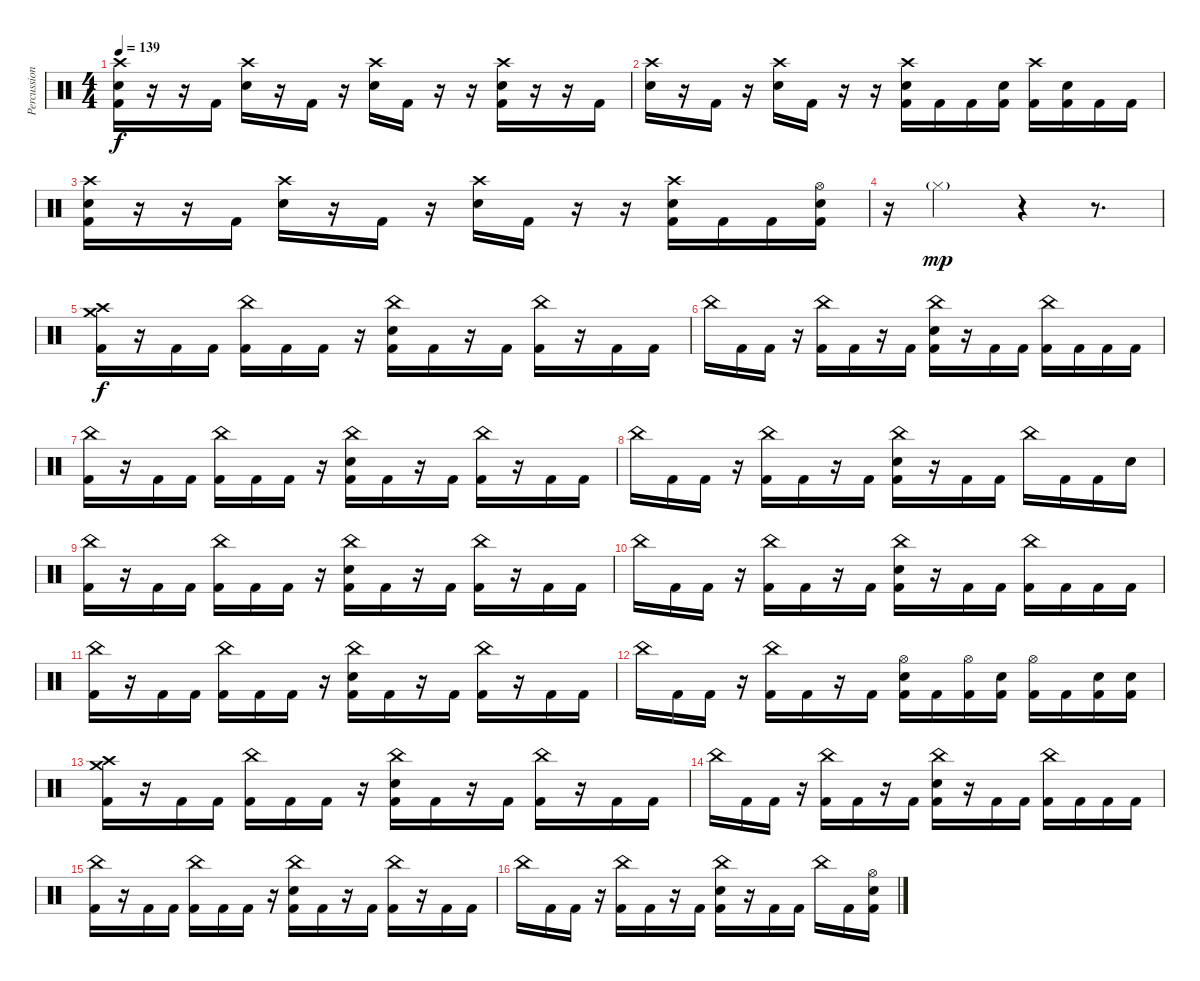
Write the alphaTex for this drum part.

\track ("Percussion" "Percussion") {instrument percussion}
\staff {score}
\articulation defaults
\ts (4 4)
\tempo 139
\clef neutral
\ks c
("Kick (hit) 2" "Electric Snare (hit)" "Crash high (hit)").16{dy f} r.16 r.16 "Kick (hit) 2".16 ("Electric Snare (hit)" "Crash high (hit)").16 r.16 "Kick (hit) 2".16 r.16 ("Electric Snare (hit)" "Crash high (hit)").16 "Kick (hit) 2".16 r.16 r.16 ("Kick (hit) 2" "Electric Snare (hit)" "Crash high (hit)").16 r.16 r.16 "Kick (hit) 2".16 |
("Electric Snare (hit)" "Crash high (hit)").16 r.16 "Kick (hit) 2".16 r.16 ("Electric Snare (hit)" "Crash high (hit)").16 "Kick (hit) 2".16 r.16 r.16 ("Kick (hit) 2" "Electric Snare (hit)" "Crash high (hit)").16 "Kick (hit) 2".16 "Kick (hit) 2".16 ("Kick (hit) 2" "Electric Snare (hit)").16 ("Kick (hit) 2" "Crash high (hit)").16 ("Kick (hit) 2" "Electric Snare (hit)").16 "Kick (hit) 2".16 "Kick (hit) 2".16 |
("Kick (hit) 2" "Electric Snare (hit)" "Crash high (hit)").16 r.16 r.16 "Kick (hit) 2".16 ("Electric Snare (hit)" "Crash high (hit)").16 r.16 "Kick (hit) 2".16 r.16 ("Electric Snare (hit)" "Crash high (hit)").16 "Kick (hit) 2".16 r.16 r.16 ("Kick (hit) 2" "Electric Snare (hit)" "Crash high (hit)").16 "Kick (hit) 2".16 "Kick (hit) 2".16 ("Kick (hit) 2" "Electric Snare (hit)" "Hi-Hat (open)").16 |
r.16 "Hi-Hat (closed)"{g}.2{dy mp} r.4 r.8{d} |
("Kick (hit) 2" "Crash medium (hit)" "Crash high (hit)").16{dy f} r.16 "Kick (hit) 2".16 "Kick (hit) 2".16 ("Kick (hit) 2" "China (hit)").16 "Kick (hit) 2".16 "Kick (hit) 2".16 r.16 ("Kick (hit) 2" "Electric Snare (hit)" "China (hit)").16 "Kick (hit) 2".16 r.16 "Kick (hit) 2".16 ("Kick (hit) 2" "China (hit)").16 r.16 "Kick (hit) 2".16 "Kick (hit) 2".16 |
"China (hit)".16 "Kick (hit) 2".16 "Kick (hit) 2".16 r.16 ("Kick (hit) 2" "China (hit)").16 "Kick (hit) 2".16 r.16 "Kick (hit) 2".16 ("Kick (hit) 2" "Electric Snare (hit)" "China (hit)").16 r.16 "Kick (hit) 2".16 "Kick (hit) 2".16 ("Kick (hit) 2" "China (hit)").16 "Kick (hit) 2".16 "Kick (hit) 2".16 "Kick (hit) 2".16 |
("Kick (hit) 2" "China (hit)").16 r.16 "Kick (hit) 2".16 "Kick (hit) 2".16 ("Kick (hit) 2" "China (hit)").16 "Kick (hit) 2".16 "Kick (hit) 2".16 r.16 ("Kick (hit) 2" "Electric Snare (hit)" "China (hit)").16 "Kick (hit) 2".16 r.16 "Kick (hit) 2".16 ("Kick (hit) 2" "China (hit)").16 r.16 "Kick (hit) 2".16 "Kick (hit) 2".16 |
"China (hit)".16 "Kick (hit) 2".16 "Kick (hit) 2".16 r.16 ("Kick (hit) 2" "China (hit)").16 "Kick (hit) 2".16 r.16 "Kick (hit) 2".16 ("Kick (hit) 2" "Electric Snare (hit)" "China (hit)").16 r.16 "Kick (hit) 2".16 "Kick (hit) 2".16 "China (hit)".16 "Kick (hit) 2".16 "Kick (hit) 2".16 "Electric Snare (hit)".16 |
("Kick (hit) 2" "China (hit)").16 r.16 "Kick (hit) 2".16 "Kick (hit) 2".16 ("Kick (hit) 2" "China (hit)").16 "Kick (hit) 2".16 "Kick (hit) 2".16 r.16 ("Kick (hit) 2" "Electric Snare (hit)" "China (hit)").16 "Kick (hit) 2".16 r.16 "Kick (hit) 2".16 ("Kick (hit) 2" "China (hit)").16 r.16 "Kick (hit) 2".16 "Kick (hit) 2".16 |
"China (hit)".16 "Kick (hit) 2".16 "Kick (hit) 2".16 r.16 ("Kick (hit) 2" "China (hit)").16 "Kick (hit) 2".16 r.16 "Kick (hit) 2".16 ("Kick (hit) 2" "Electric Snare (hit)" "China (hit)").16 r.16 "Kick (hit) 2".16 "Kick (hit) 2".16 ("Kick (hit) 2" "China (hit)").16 "Kick (hit) 2".16 "Kick (hit) 2".16 "Kick (hit) 2".16 |
("Kick (hit) 2" "China (hit)").16 r.16 "Kick (hit) 2".16 "Kick (hit) 2".16 ("Kick (hit) 2" "China (hit)").16 "Kick (hit) 2".16 "Kick (hit) 2".16 r.16 ("Kick (hit) 2" "Electric Snare (hit)" "China (hit)").16 "Kick (hit) 2".16 r.16 "Kick (hit) 2".16 ("Kick (hit) 2" "China (hit)").16 r.16 "Kick (hit) 2".16 "Kick (hit) 2".16 |
"China (hit)".16 "Kick (hit) 2".16 "Kick (hit) 2".16 r.16 ("Kick (hit) 2" "China (hit)").16 "Kick (hit) 2".16 r.16 "Kick (hit) 2".16 ("Kick (hit) 2" "Electric Snare (hit)" "Hi-Hat (open)").16 "Kick (hit) 2".16 ("Kick (hit) 2" "Hi-Hat (open)").16 ("Kick (hit) 2" "Electric Snare (hit)").16 ("Kick (hit) 2" "Hi-Hat (open)").16 "Kick (hit) 2".16 ("Kick (hit) 2" "Electric Snare (hit)").16 ("Kick (hit) 2" "Electric Snare (hit)").16 |
("Kick (hit) 2" "Crash medium (hit)" "Crash high (hit)").16 r.16 "Kick (hit) 2".16 "Kick (hit) 2".16 ("Kick (hit) 2" "China (hit)").16 "Kick (hit) 2".16 "Kick (hit) 2".16 r.16 ("Kick (hit) 2" "Electric Snare (hit)" "China (hit)").16 "Kick (hit) 2".16 r.16 "Kick (hit) 2".16 ("Kick (hit) 2" "China (hit)").16 r.16 "Kick (hit) 2".16 "Kick (hit) 2".16 |
"China (hit)".16 "Kick (hit) 2".16 "Kick (hit) 2".16 r.16 ("Kick (hit) 2" "China (hit)").16 "Kick (hit) 2".16 r.16 "Kick (hit) 2".16 ("Kick (hit) 2" "Electric Snare (hit)" "China (hit)").16 r.16 "Kick (hit) 2".16 "Kick (hit) 2".16 ("Kick (hit) 2" "China (hit)").16 "Kick (hit) 2".16 "Kick (hit) 2".16 "Kick (hit) 2".16 |
("Kick (hit) 2" "China (hit)").16 r.16 "Kick (hit) 2".16 "Kick (hit) 2".16 ("Kick (hit) 2" "China (hit)").16 "Kick (hit) 2".16 "Kick (hit) 2".16 r.16 ("Kick (hit) 2" "Electric Snare (hit)" "China (hit)").16 "Kick (hit) 2".16 r.16 "Kick (hit) 2".16 ("Kick (hit) 2" "China (hit)").16 r.16 "Kick (hit) 2".16 "Kick (hit) 2".16 |
"China (hit)".16 "Kick (hit) 2".16 "Kick (hit) 2".16 r.16 ("Kick (hit) 2" "China (hit)").16 "Kick (hit) 2".16 r.16 "Kick (hit) 2".16 ("Kick (hit) 2" "Electric Snare (hit)" "China (hit)").16 r.16 "Kick (hit) 2".16 "Kick (hit) 2".16 "China (hit)".16 "Kick (hit) 2".16 ("Kick (hit) 2" "Electric Snare (hit)" "Hi-Hat (open)").16
